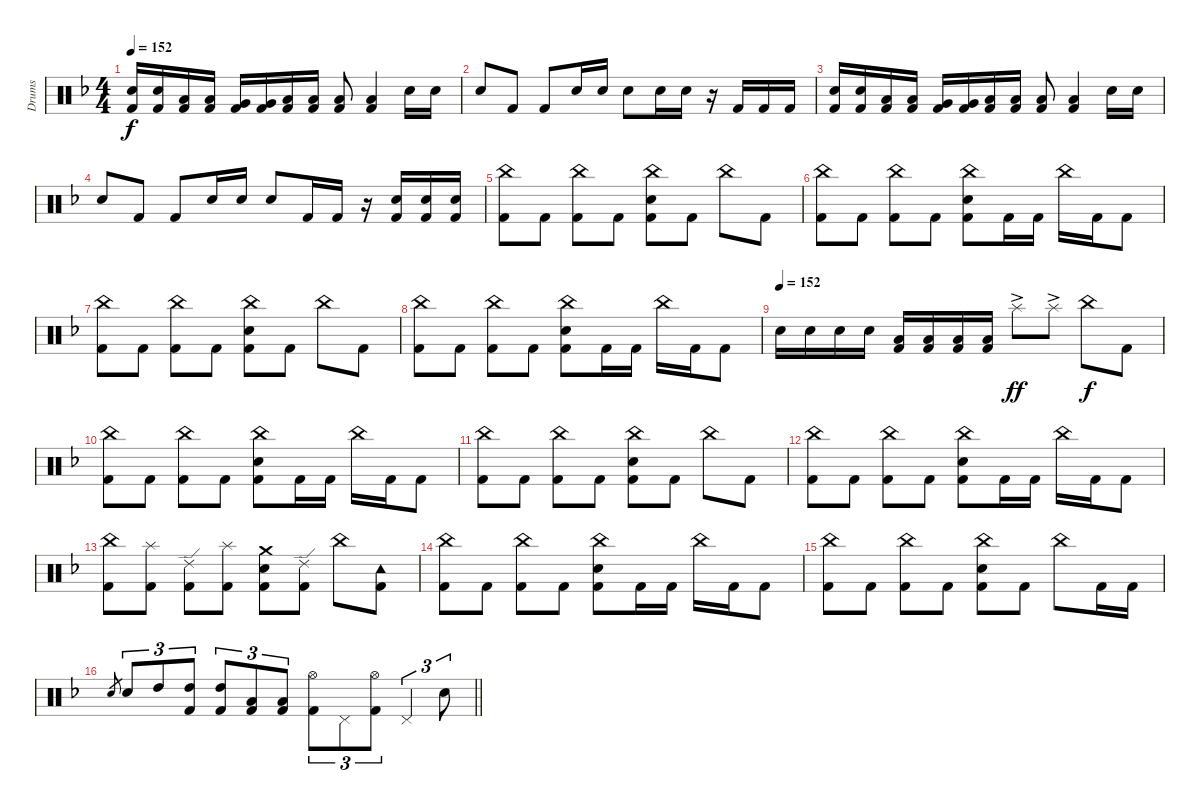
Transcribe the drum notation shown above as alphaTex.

\track ("Drums" "Drums") {instrument percussion}
\staff {score}
\articulation defaults
\ts (4 4)
\tempo 152
\clef neutral
\ks f
("Electric Snare (hit)" "Kick (hit) 2").16{dy f} ("Electric Snare (hit)" "Kick (hit) 2").16 ("Low Tom (hit)" "Kick (hit) 2").16 ("Low Tom (hit)" "Kick (hit) 2").16 ("Very Low Tom (hit)" "Kick (hit) 2").16 ("Very Low Tom (hit)" "Kick (hit) 2").16 ("Low Floor Tom (hit)" "Kick (hit) 2").16 ("Low Floor Tom (hit)" "Kick (hit) 2").16 ("Low Floor Tom (hit)" "Kick (hit) 2").8 ("Low Floor Tom (hit)" "Kick (hit) 2").4 "Electric Snare (hit)".16 "Electric Snare (hit)".16 |
"Electric Snare (hit)".8 "Kick (hit) 2".8 "Kick (hit) 2".8 "Electric Snare (hit)".16 "Electric Snare (hit)".16 "Electric Snare (hit)".8 "Electric Snare (hit)".16 "Electric Snare (hit)".16 r.16 "Kick (hit) 2".16 "Kick (hit) 2".16 "Kick (hit) 2".16 |
("Electric Snare (hit)" "Kick (hit) 2").16 ("Electric Snare (hit)" "Kick (hit) 2").16 ("Low Tom (hit)" "Kick (hit) 2").16 ("Low Tom (hit)" "Kick (hit) 2").16 ("Very Low Tom (hit)" "Kick (hit) 2").16 ("Very Low Tom (hit)" "Kick (hit) 2").16 ("Low Floor Tom (hit)" "Kick (hit) 2").16 ("Low Floor Tom (hit)" "Kick (hit) 2").16 ("Low Floor Tom (hit)" "Kick (hit) 2").8 ("Low Floor Tom (hit)" "Kick (hit) 2").4 "Electric Snare (hit)".16 "Electric Snare (hit)".16 |
"Electric Snare (hit)".8 "Kick (hit) 2".8 "Kick (hit) 2".8 "Electric Snare (hit)".16 "Electric Snare (hit)".16 "Electric Snare (hit)".8 "Kick (hit) 2".16 "Kick (hit) 2".16 r.16 ("Electric Snare (hit)" "Kick (hit) 2").16 ("Electric Snare (hit)" "Kick (hit) 2").16 ("Electric Snare (hit)" "Kick (hit) 2").16 |
("China (hit)" "Kick (hit) 2").8 "Kick (hit) 2".8 ("China (hit)" "Kick (hit) 2").8 "Kick (hit) 2".8 ("China (hit)" "Electric Snare (hit)" "Kick (hit) 2").8 "Kick (hit) 2".8 "China (hit)".8 "Kick (hit) 2".8 |
("China (hit)" "Kick (hit) 2").8 "Kick (hit) 2".8 ("China (hit)" "Kick (hit) 2").8 "Kick (hit) 2".8 ("China (hit)" "Electric Snare (hit)" "Kick (hit) 2").8 "Kick (hit) 2".16 "Kick (hit) 2".16 "China (hit)".16 "Kick (hit) 2".16 "Kick (hit) 2".8 |
("China (hit)" "Kick (hit) 2").8 "Kick (hit) 2".8 ("China (hit)" "Kick (hit) 2").8 "Kick (hit) 2".8 ("China (hit)" "Electric Snare (hit)" "Kick (hit) 2").8 "Kick (hit) 2".8 "China (hit)".8 "Kick (hit) 2".8 |
("China (hit)" "Kick (hit) 2").8 "Kick (hit) 2".8 ("China (hit)" "Kick (hit) 2").8 "Kick (hit) 2".8 ("China (hit)" "Electric Snare (hit)" "Kick (hit) 2").8 "Kick (hit) 2".16 "Kick (hit) 2".16 "China (hit)".16 "Kick (hit) 2".16 "Kick (hit) 2".8 |
\tempo (152)
"Electric Snare (hit)".16 "Electric Snare (hit)".16 "Electric Snare (hit)".16 "Electric Snare (hit)".16 ("Low Tom (hit)" "Kick (hit) 2").16 ("Low Tom (hit)" "Kick (hit) 2").16 ("Low Tom (hit)" "Kick (hit) 2").16 ("Low Tom (hit)" "Kick (hit) 2").16 "Splash (hit)"{ac}.8{dy ff} "Splash (hit)"{ac}.8 "China (hit)".8{dy f} "Kick (hit) 2".8 |
("China (hit)" "Kick (hit) 2").8 "Kick (hit) 2".8 ("China (hit)" "Kick (hit) 2").8 "Kick (hit) 2".8 ("China (hit)" "Electric Snare (hit)" "Kick (hit) 2").8 "Kick (hit) 2".16 "Kick (hit) 2".16 "China (hit)".16 "Kick (hit) 2".16 "Kick (hit) 2".8 |
("China (hit)" "Kick (hit) 2").8 "Kick (hit) 2".8 ("China (hit)" "Kick (hit) 2").8 "Kick (hit) 2".8 ("China (hit)" "Electric Snare (hit)" "Kick (hit) 2").8 "Kick (hit) 2".8 "China (hit)".8 "Kick (hit) 2".8 |
("China (hit)" "Kick (hit) 2").8 "Kick (hit) 2".8 ("China (hit)" "Kick (hit) 2").8 "Kick (hit) 2".8 ("China (hit)" "Electric Snare (hit)" "Kick (hit) 2").8 "Kick (hit) 2".16 "Kick (hit) 2".16 "China (hit)".16 "Kick (hit) 2".16 "Kick (hit) 2".8 |
("China (hit)" "Kick (hit) 2").8 ("Splash (hit)" "Kick (hit) 2").8 ("Ride (edge) 2" "Kick (hit) 2").8 ("Splash (hit)" "Kick (hit) 2").8 ("Crash medium (hit)" "Electric Snare (hit)" "Kick (hit) 2").8 ("Ride (edge) 2" "Kick (hit) 2").8 "China (hit)".8 ("Tambourine (hit)" "Kick (hit) 2").8 |
("China (hit)" "Kick (hit) 2").8 "Kick (hit) 2".8 ("China (hit)" "Kick (hit) 2").8 "Kick (hit) 2".8 ("China (hit)" "Electric Snare (hit)" "Kick (hit) 2").8 "Kick (hit) 2".16 "Kick (hit) 2".16 "China (hit)".16 "Kick (hit) 2".16 "Kick (hit) 2".8 |
("China (hit)" "Kick (hit) 2").8 "Kick (hit) 2".8 ("China (hit)" "Kick (hit) 2").8 "Kick (hit) 2".8 ("China (hit)" "Electric Snare (hit)" "Kick (hit) 2").8 "Kick (hit) 2".8 "China (hit)".8 "Kick (hit) 2".16 "Kick (hit) 2".16 |
\barLineRight lightlight "Electric Snare (hit)".8{gr} "Electric Snare (hit)".8{tu (3 2)} "High Tom (hit)".8{tu (3 2)}
("High Tom (hit)" "Kick (hit) 2").8{tu (3 2)} ("High Tom (hit)" "Kick (hit) 2").8{tu (3 2)} ("Low Tom (hit)" "Kick (hit) 2").8{tu (3 2)} ("Low Tom (hit)" "Kick (hit) 2").8{tu (3 2)} ("Hi-Hat (open)" "Kick (hit) 2").8{tu (3 2)} "Pedal Hi-Hat (hit)".8{tu (3 2)} ("Hi-Hat (open)" "Kick (hit) 2").8{tu (3 2)} "Pedal Hi-Hat (hit)".4{tu (3 2)} "Electric Snare (hit)".8{tu (3 2)}
